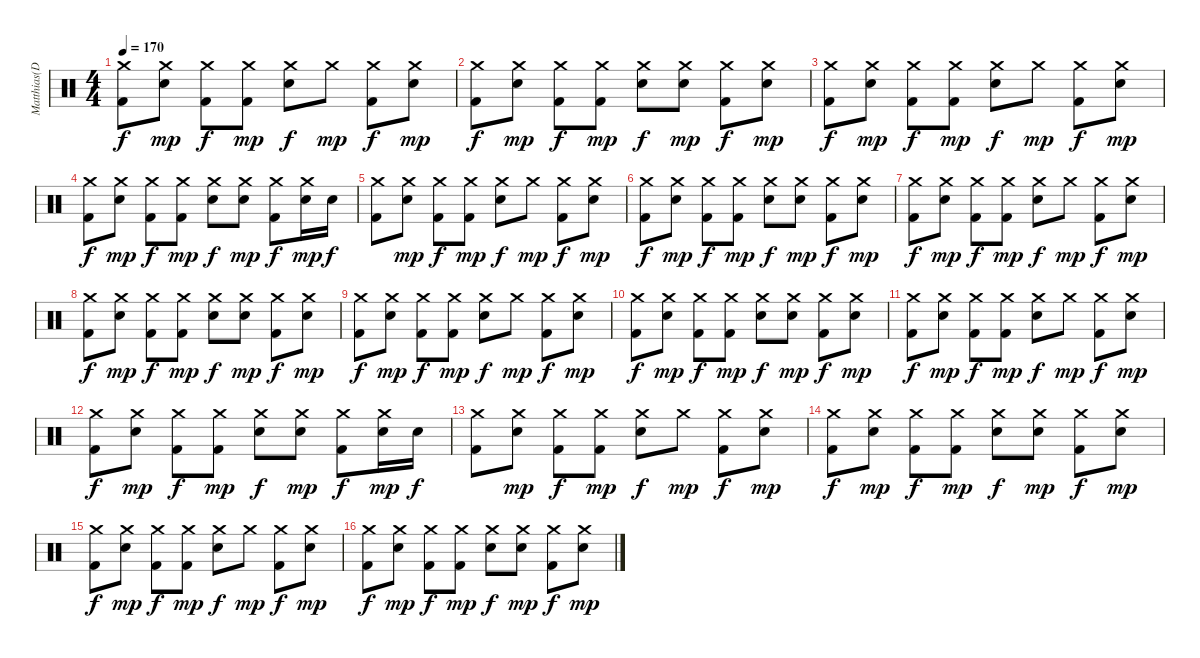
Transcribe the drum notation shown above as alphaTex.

\track ("Matthias(Drums)" "Matthias(D") {instrument percussion}
\staff {score}
\articulation defaults
\ts (4 4)
\tempo 170
\clef neutral
\ks c
("Crash medium (hit)" "Kick (hit) 2").8{dy f} ("Crash medium (hit)" "Snare (hit) 2").8{dy mp} ("Crash medium (hit)" "Kick (hit) 2").8{dy f} ("Crash medium (hit)" "Kick (hit) 2").8{dy mp} ("Crash medium (hit)" "Snare (hit) 2").8{dy f} "Crash medium (hit)".8{dy mp} ("Crash medium (hit)" "Kick (hit) 2").8{dy f} ("Crash medium (hit)" "Snare (hit) 2").8{dy mp} |
("Crash medium (hit)" "Kick (hit) 2").8{dy f} ("Crash medium (hit)" "Snare (hit) 2").8{dy mp} ("Crash medium (hit)" "Kick (hit) 2").8{dy f} ("Crash medium (hit)" "Kick (hit) 2").8{dy mp} ("Crash medium (hit)" "Snare (hit) 2").8{dy f} ("Crash medium (hit)" "Snare (hit) 2").8{dy mp} ("Crash medium (hit)" "Kick (hit) 2").8{dy f} ("Crash medium (hit)" "Snare (hit) 2").8{dy mp} |
("Crash medium (hit)" "Kick (hit) 2").8{dy f} ("Crash medium (hit)" "Snare (hit) 2").8{dy mp} ("Crash medium (hit)" "Kick (hit) 2").8{dy f} ("Crash medium (hit)" "Kick (hit) 2").8{dy mp} ("Crash medium (hit)" "Snare (hit) 2").8{dy f} "Crash medium (hit)".8{dy mp} ("Crash medium (hit)" "Kick (hit) 2").8{dy f} ("Crash medium (hit)" "Snare (hit) 2").8{dy mp} |
("Crash medium (hit)" "Kick (hit) 2").8{dy f} ("Crash medium (hit)" "Snare (hit) 2").8{dy mp} ("Crash medium (hit)" "Kick (hit) 2").8{dy f} ("Crash medium (hit)" "Kick (hit) 2").8{dy mp} ("Crash medium (hit)" "Snare (hit) 2").8{dy f} ("Crash medium (hit)" "Snare (hit) 2").8{dy mp} ("Crash medium (hit)" "Kick (hit) 2").8{dy f} ("Crash medium (hit)" "Snare (hit) 2").16{dy mp} "Snare (hit) 2".16{dy f} |
("Crash medium (hit)" "Kick (hit) 2").8 ("Crash medium (hit)" "Snare (hit) 2").8{dy mp} ("Crash medium (hit)" "Kick (hit) 2").8{dy f} ("Crash medium (hit)" "Kick (hit) 2").8{dy mp} ("Crash medium (hit)" "Snare (hit) 2").8{dy f} "Crash medium (hit)".8{dy mp} ("Crash medium (hit)" "Kick (hit) 2").8{dy f} ("Crash medium (hit)" "Snare (hit) 2").8{dy mp} |
("Crash medium (hit)" "Kick (hit) 2").8{dy f} ("Crash medium (hit)" "Snare (hit) 2").8{dy mp} ("Crash medium (hit)" "Kick (hit) 2").8{dy f} ("Crash medium (hit)" "Kick (hit) 2").8{dy mp} ("Crash medium (hit)" "Snare (hit) 2").8{dy f} ("Crash medium (hit)" "Snare (hit) 2").8{dy mp} ("Crash medium (hit)" "Kick (hit) 2").8{dy f} ("Crash medium (hit)" "Snare (hit) 2").8{dy mp} |
("Crash medium (hit)" "Kick (hit) 2").8{dy f} ("Crash medium (hit)" "Snare (hit) 2").8{dy mp} ("Crash medium (hit)" "Kick (hit) 2").8{dy f} ("Crash medium (hit)" "Kick (hit) 2").8{dy mp} ("Crash medium (hit)" "Snare (hit) 2").8{dy f} "Crash medium (hit)".8{dy mp} ("Crash medium (hit)" "Kick (hit) 2").8{dy f} ("Crash medium (hit)" "Snare (hit) 2").8{dy mp} |
("Crash medium (hit)" "Kick (hit) 2").8{dy f} ("Crash medium (hit)" "Snare (hit) 2").8{dy mp} ("Crash medium (hit)" "Kick (hit) 2").8{dy f} ("Crash medium (hit)" "Kick (hit) 2").8{dy mp} ("Crash medium (hit)" "Snare (hit) 2").8{dy f} ("Crash medium (hit)" "Snare (hit) 2").8{dy mp} ("Crash medium (hit)" "Kick (hit) 2").8{dy f} ("Crash medium (hit)" "Snare (hit) 2").8{dy mp} |
("Crash medium (hit)" "Kick (hit) 2").8{dy f} ("Crash medium (hit)" "Snare (hit) 2").8{dy mp} ("Crash medium (hit)" "Kick (hit) 2").8{dy f} ("Crash medium (hit)" "Kick (hit) 2").8{dy mp} ("Crash medium (hit)" "Snare (hit) 2").8{dy f} "Crash medium (hit)".8{dy mp} ("Crash medium (hit)" "Kick (hit) 2").8{dy f} ("Crash medium (hit)" "Snare (hit) 2").8{dy mp} |
("Crash medium (hit)" "Kick (hit) 2").8{dy f} ("Crash medium (hit)" "Snare (hit) 2").8{dy mp} ("Crash medium (hit)" "Kick (hit) 2").8{dy f} ("Crash medium (hit)" "Kick (hit) 2").8{dy mp} ("Crash medium (hit)" "Snare (hit) 2").8{dy f} ("Crash medium (hit)" "Snare (hit) 2").8{dy mp} ("Crash medium (hit)" "Kick (hit) 2").8{dy f} ("Crash medium (hit)" "Snare (hit) 2").8{dy mp} |
("Crash medium (hit)" "Kick (hit) 2").8{dy f} ("Crash medium (hit)" "Snare (hit) 2").8{dy mp} ("Crash medium (hit)" "Kick (hit) 2").8{dy f} ("Crash medium (hit)" "Kick (hit) 2").8{dy mp} ("Crash medium (hit)" "Snare (hit) 2").8{dy f} "Crash medium (hit)".8{dy mp} ("Crash medium (hit)" "Kick (hit) 2").8{dy f} ("Crash medium (hit)" "Snare (hit) 2").8{dy mp} |
("Crash medium (hit)" "Kick (hit) 2").8{dy f} ("Crash medium (hit)" "Snare (hit) 2").8{dy mp} ("Crash medium (hit)" "Kick (hit) 2").8{dy f} ("Crash medium (hit)" "Kick (hit) 2").8{dy mp} ("Crash medium (hit)" "Snare (hit) 2").8{dy f} ("Crash medium (hit)" "Snare (hit) 2").8{dy mp} ("Crash medium (hit)" "Kick (hit) 2").8{dy f} ("Crash medium (hit)" "Snare (hit) 2").16{dy mp} "Snare (hit) 2".16{dy f} |
("Crash medium (hit)" "Kick (hit) 2").8 ("Crash medium (hit)" "Snare (hit) 2").8{dy mp} ("Crash medium (hit)" "Kick (hit) 2").8{dy f} ("Crash medium (hit)" "Kick (hit) 2").8{dy mp} ("Crash medium (hit)" "Snare (hit) 2").8{dy f} "Crash medium (hit)".8{dy mp} ("Crash medium (hit)" "Kick (hit) 2").8{dy f} ("Crash medium (hit)" "Snare (hit) 2").8{dy mp} |
("Crash medium (hit)" "Kick (hit) 2").8{dy f} ("Crash medium (hit)" "Snare (hit) 2").8{dy mp} ("Crash medium (hit)" "Kick (hit) 2").8{dy f} ("Crash medium (hit)" "Kick (hit) 2").8{dy mp} ("Crash medium (hit)" "Snare (hit) 2").8{dy f} ("Crash medium (hit)" "Snare (hit) 2").8{dy mp} ("Crash medium (hit)" "Kick (hit) 2").8{dy f} ("Crash medium (hit)" "Snare (hit) 2").8{dy mp} |
("Crash medium (hit)" "Kick (hit) 2").8{dy f} ("Crash medium (hit)" "Snare (hit) 2").8{dy mp} ("Crash medium (hit)" "Kick (hit) 2").8{dy f} ("Crash medium (hit)" "Kick (hit) 2").8{dy mp} ("Crash medium (hit)" "Snare (hit) 2").8{dy f} "Crash medium (hit)".8{dy mp} ("Crash medium (hit)" "Kick (hit) 2").8{dy f} ("Crash medium (hit)" "Snare (hit) 2").8{dy mp} |
("Crash medium (hit)" "Kick (hit) 2").8{dy f} ("Crash medium (hit)" "Snare (hit) 2").8{dy mp} ("Crash medium (hit)" "Kick (hit) 2").8{dy f} ("Crash medium (hit)" "Kick (hit) 2").8{dy mp} ("Crash medium (hit)" "Snare (hit) 2").8{dy f} ("Crash medium (hit)" "Snare (hit) 2").8{dy mp} ("Crash medium (hit)" "Kick (hit) 2").8{dy f} ("Crash medium (hit)" "Snare (hit) 2").8{dy mp}
